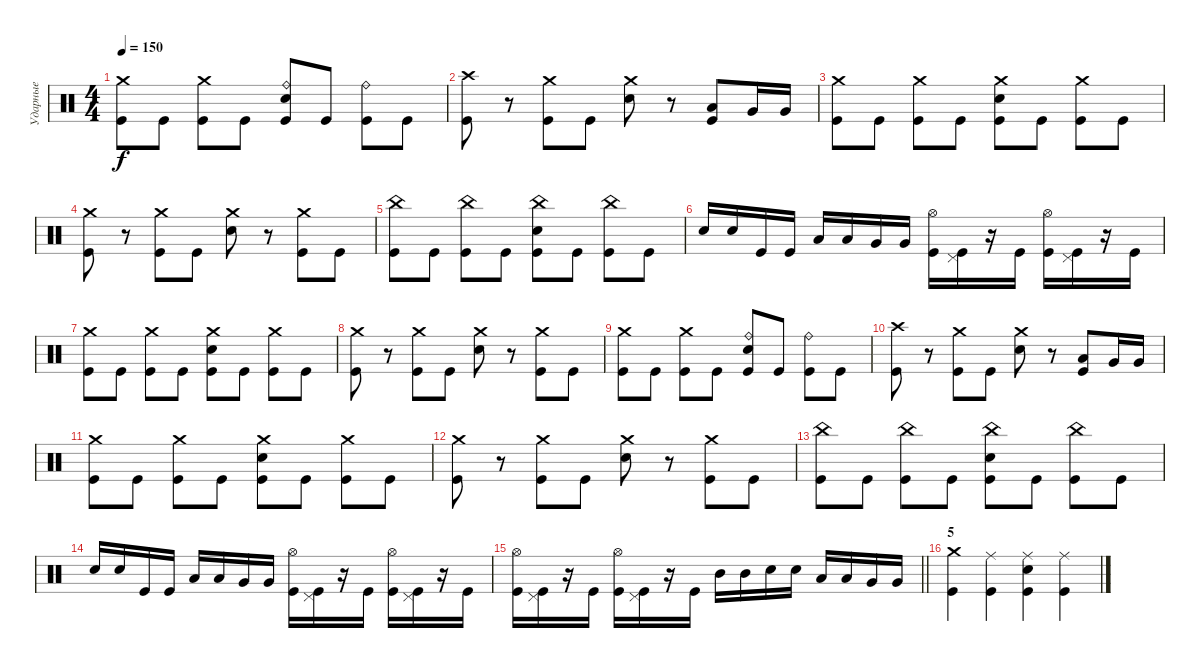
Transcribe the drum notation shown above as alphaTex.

\track ("Ударные" "Ударные") {instrument percussion}
\staff {score}
\articulation defaults
\ts (4 4)
\tempo 150
\clef neutral
\ks c
("Crash medium (hit)" "Kick (hit)").8{dy f} "Kick (hit)".8 ("Crash medium (hit)" "Kick (hit)").8 "Kick (hit)".8 ("Ride (bell)" "Electric Snare (hit)" "Kick (hit)").8 "Kick (hit)".8 ("Ride (bell)" "Kick (hit)").8 "Kick (hit)".8 |
("Crash high (hit)" "Kick (hit)").8 r.8 ("Crash medium (hit)" "Kick (hit)").8 "Kick (hit)".8 ("Crash medium (hit)" "Electric Snare (hit)").8 r.8 ("Low Tom (hit)" "Kick (hit)").8 "Very Low Tom (hit)".16 "Very Low Tom (hit)".16 |
("Crash medium (hit)" "Kick (hit)").8 "Kick (hit)".8 ("Crash medium (hit)" "Kick (hit)").8 "Kick (hit)".8 ("Crash medium (hit)" "Electric Snare (hit)" "Kick (hit)").8 "Kick (hit)".8 ("Crash medium (hit)" "Kick (hit)").8 "Kick (hit)".8 |
("Crash medium (hit)" "Kick (hit)").8 r.8 ("Crash medium (hit)" "Kick (hit)").8 "Kick (hit)".8 ("Crash medium (hit)" "Electric Snare (hit)").8 r.8 ("Crash medium (hit)" "Kick (hit)").8 "Kick (hit)".8 |
("China (hit)" "Kick (hit)").8 "Kick (hit)".8 ("China (hit)" "Kick (hit)").8 "Kick (hit)".8 ("China (hit)" "Electric Snare (hit)" "Kick (hit)").8 "Kick (hit)".8 ("China (hit)" "Kick (hit)").8 "Kick (hit)".8 |
"Electric Snare (hit)".16 "Electric Snare (hit)".16 "Kick (hit)".16 "Kick (hit)".16 "Low Tom (hit)".16 "Low Tom (hit)".16 "Very Low Tom (hit)".16 "Very Low Tom (hit)".16 ("Hi-Hat (open)" "Kick (hit)").16 ("Pedal Hi-Hat (hit)" "Kick (hit)").16 r.16 "Kick (hit)".16 ("Hi-Hat (open)" "Kick (hit)").16 ("Pedal Hi-Hat (hit)" "Kick (hit)").16 r.16 "Kick (hit)".16 |
("Crash medium (hit)" "Kick (hit)").8 "Kick (hit)".8 ("Crash medium (hit)" "Kick (hit)").8 "Kick (hit)".8 ("Crash medium (hit)" "Electric Snare (hit)" "Kick (hit)").8 "Kick (hit)".8 ("Crash medium (hit)" "Kick (hit)").8 "Kick (hit)".8 |
("Crash medium (hit)" "Kick (hit)").8 r.8 ("Crash medium (hit)" "Kick (hit)").8 "Kick (hit)".8 ("Crash medium (hit)" "Electric Snare (hit)").8 r.8 ("Crash medium (hit)" "Kick (hit)").8 "Kick (hit)".8 |
("Crash medium (hit)" "Kick (hit)").8 "Kick (hit)".8 ("Crash medium (hit)" "Kick (hit)").8 "Kick (hit)".8 ("Ride (bell)" "Electric Snare (hit)" "Kick (hit)").8 "Kick (hit)".8 ("Ride (bell)" "Kick (hit)").8 "Kick (hit)".8 |
("Crash high (hit)" "Kick (hit)").8 r.8 ("Crash medium (hit)" "Kick (hit)").8 "Kick (hit)".8 ("Crash medium (hit)" "Electric Snare (hit)").8 r.8 ("Low Tom (hit)" "Kick (hit)").8 "Very Low Tom (hit)".16 "Very Low Tom (hit)".16 |
("Crash medium (hit)" "Kick (hit)").8 "Kick (hit)".8 ("Crash medium (hit)" "Kick (hit)").8 "Kick (hit)".8 ("Crash medium (hit)" "Electric Snare (hit)" "Kick (hit)").8 "Kick (hit)".8 ("Crash medium (hit)" "Kick (hit)").8 "Kick (hit)".8 |
("Crash medium (hit)" "Kick (hit)").8 r.8 ("Crash medium (hit)" "Kick (hit)").8 "Kick (hit)".8 ("Crash medium (hit)" "Electric Snare (hit)").8 r.8 ("Crash medium (hit)" "Kick (hit)").8 "Kick (hit)".8 |
("China (hit)" "Kick (hit)").8 "Kick (hit)".8 ("China (hit)" "Kick (hit)").8 "Kick (hit)".8 ("China (hit)" "Electric Snare (hit)" "Kick (hit)").8 "Kick (hit)".8 ("China (hit)" "Kick (hit)").8 "Kick (hit)".8 |
"Electric Snare (hit)".16 "Electric Snare (hit)".16 "Kick (hit)".16 "Kick (hit)".16 "Low Tom (hit)".16 "Low Tom (hit)".16 "Very Low Tom (hit)".16 "Very Low Tom (hit)".16 ("Hi-Hat (open)" "Kick (hit)").16 ("Pedal Hi-Hat (hit)" "Kick (hit)").16 r.16 "Kick (hit)".16 ("Hi-Hat (open)" "Kick (hit)").16 ("Pedal Hi-Hat (hit)" "Kick (hit)").16 r.16 "Kick (hit)".16 |
\barLineRight lightlight
("Hi-Hat (open)" "Kick (hit)").16 ("Pedal Hi-Hat (hit)" "Kick (hit)").16 r.16 "Kick (hit)".16 ("Hi-Hat (open)" "Kick (hit)").16 ("Pedal Hi-Hat (hit)" "Kick (hit)").16 r.16 "Kick (hit)".16 "Mid Tom (hit)".16 "Mid Tom (hit)".16 "Electric Snare (hit)".16 "Electric Snare (hit)".16 "Low Tom (hit)".16 "Low Tom (hit)".16 "Very Low Tom (hit)".16 "Very Low Tom (hit)".16 |
\section ("" "5")
("Crash medium (hit)" "Kick (hit)").4 ("Ride (middle)" "Kick (hit)").4 ("Ride (middle)" "Electric Snare (hit)" "Kick (hit)").4 ("Ride (middle)" "Kick (hit)").4
